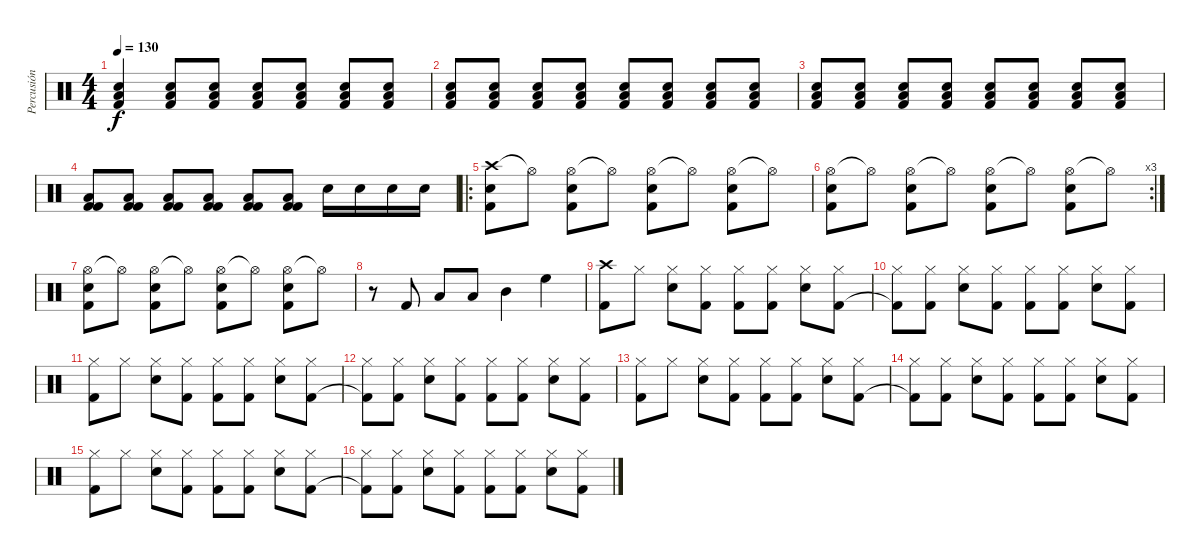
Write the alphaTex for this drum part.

\track ("Percusión" "Percusión") {instrument percussion}
\staff {score}
\articulation defaults
\ts (4 4)
\tempo 130
\clef neutral
\ks c
("Low Floor Tom (hit)" "Snare (hit) 2" "Kick (hit) 2").4{dy f} ("Low Floor Tom (hit)" "Snare (hit) 2" "Kick (hit) 2").8 ("Low Floor Tom (hit)" "Snare (hit) 2" "Kick (hit) 2").8 ("Low Floor Tom (hit)" "Snare (hit) 2" "Kick (hit) 2").8 ("Low Floor Tom (hit)" "Snare (hit) 2" "Kick (hit) 2").8 ("Low Floor Tom (hit)" "Snare (hit) 2" "Kick (hit) 2").8 ("Low Floor Tom (hit)" "Snare (hit) 2" "Kick (hit) 2").8 |
("Low Floor Tom (hit)" "Snare (hit) 2" "Kick (hit) 2").8 ("Low Floor Tom (hit)" "Snare (hit) 2" "Kick (hit) 2").8 ("Low Floor Tom (hit)" "Snare (hit) 2" "Kick (hit) 2").8 ("Low Floor Tom (hit)" "Snare (hit) 2" "Kick (hit) 2").8 ("Low Floor Tom (hit)" "Snare (hit) 2" "Kick (hit) 2").8 ("Low Floor Tom (hit)" "Snare (hit) 2" "Kick (hit) 2").8 ("Low Floor Tom (hit)" "Snare (hit) 2" "Kick (hit) 2").8 ("Low Floor Tom (hit)" "Snare (hit) 2" "Kick (hit) 2").8 |
("Low Floor Tom (hit)" "Snare (hit) 2" "Kick (hit) 2").8 ("Low Floor Tom (hit)" "Snare (hit) 2" "Kick (hit) 2").8 ("Low Floor Tom (hit)" "Snare (hit) 2" "Kick (hit) 2").8 ("Low Floor Tom (hit)" "Snare (hit) 2" "Kick (hit) 2").8 ("Low Floor Tom (hit)" "Snare (hit) 2" "Kick (hit) 2").8 ("Low Floor Tom (hit)" "Snare (hit) 2" "Kick (hit) 2").8 ("Low Floor Tom (hit)" "Snare (hit) 2" "Kick (hit) 2").8 ("Low Floor Tom (hit)" "Snare (hit) 2" "Kick (hit) 2").8 |
("Low Floor Tom (hit)" "Kick (hit) 2" "Kick (hit) 2").8 ("Low Floor Tom (hit)" "Kick (hit) 2" "Kick (hit) 2").8 ("Low Floor Tom (hit)" "Kick (hit) 2" "Kick (hit) 2").8 ("Low Floor Tom (hit)" "Kick (hit) 2" "Kick (hit) 2").8 ("Low Floor Tom (hit)" "Kick (hit) 2" "Kick (hit) 2").8 ("Low Floor Tom (hit)" "Kick (hit) 2" "Kick (hit) 2").8 "Snare (hit) 2".16 "Snare (hit) 2".16 "Snare (hit) 2".16 "Snare (hit) 2".16 |
\ro
("Crash high (hit)" "Snare (hit) 2" "Kick (hit) 2").8 "Hi-Hat (open)"{t}.8 ("Hi-Hat (open)" "Snare (hit) 2" "Kick (hit) 2").8 "Hi-Hat (open)"{t}.8 ("Hi-Hat (open)" "Snare (hit) 2" "Kick (hit) 2").8 "Hi-Hat (open)"{t}.8 ("Hi-Hat (open)" "Snare (hit) 2" "Kick (hit) 2").8 "Hi-Hat (open)"{t}.8 |
\rc 3
("Hi-Hat (open)" "Snare (hit) 2" "Kick (hit) 2").8 "Hi-Hat (open)"{t}.8 ("Hi-Hat (open)" "Snare (hit) 2" "Kick (hit) 2").8 "Hi-Hat (open)"{t}.8 ("Hi-Hat (open)" "Snare (hit) 2" "Kick (hit) 2").8 "Hi-Hat (open)"{t}.8 ("Hi-Hat (open)" "Snare (hit) 2" "Kick (hit) 2").8 "Hi-Hat (open)"{t}.8 |
("Hi-Hat (open)" "Snare (hit) 2" "Kick (hit) 2").8 "Hi-Hat (open)"{t}.8 ("Hi-Hat (open)" "Snare (hit) 2" "Kick (hit) 2").8 "Hi-Hat (open)"{t}.8 ("Hi-Hat (open)" "Snare (hit) 2" "Kick (hit) 2").8 "Hi-Hat (open)"{t}.8 ("Hi-Hat (open)" "Snare (hit) 2" "Kick (hit) 2").8 "Hi-Hat (open)"{t}.8 |
r.8 "Kick (hit) 2".8 "Low Floor Tom (hit)".8 "Low Tom (hit)".8 "Mid Tom (hit)".4 "High Floor Tom (hit)".4 |
("Crash high (hit)" "Kick (hit) 2").8 "Hi-Hat (closed)".8 ("Hi-Hat (closed)" "Snare (hit) 2").8 ("Hi-Hat (closed)" "Kick (hit) 2").8 ("Hi-Hat (closed)" "Kick (hit) 2").8 ("Hi-Hat (closed)" "Kick (hit) 2").8 ("Hi-Hat (closed)" "Snare (hit) 2").8 ("Hi-Hat (closed)" "Kick (hit) 2").8 |
("Hi-Hat (closed)" "Kick (hit) 2"{t}).8 ("Hi-Hat (closed)" "Kick (hit) 2").8 ("Hi-Hat (closed)" "Snare (hit) 2").8 ("Hi-Hat (closed)" "Kick (hit) 2").8 ("Hi-Hat (closed)" "Kick (hit) 2").8 ("Hi-Hat (closed)" "Kick (hit) 2").8 ("Hi-Hat (closed)" "Snare (hit) 2").8 ("Hi-Hat (closed)" "Kick (hit) 2").8 |
("Hi-Hat (closed)" "Kick (hit) 2").8 "Hi-Hat (closed)".8 ("Hi-Hat (closed)" "Snare (hit) 2").8 ("Hi-Hat (closed)" "Kick (hit) 2").8 ("Hi-Hat (closed)" "Kick (hit) 2").8 ("Hi-Hat (closed)" "Kick (hit) 2").8 ("Hi-Hat (closed)" "Snare (hit) 2").8 ("Hi-Hat (closed)" "Kick (hit) 2").8 |
("Hi-Hat (closed)" "Kick (hit) 2"{t}).8 ("Hi-Hat (closed)" "Kick (hit) 2").8 ("Hi-Hat (closed)" "Snare (hit) 2").8 ("Hi-Hat (closed)" "Kick (hit) 2").8 ("Hi-Hat (closed)" "Kick (hit) 2").8 ("Hi-Hat (closed)" "Kick (hit) 2").8 ("Hi-Hat (closed)" "Snare (hit) 2").8 ("Hi-Hat (closed)" "Kick (hit) 2").8 |
("Hi-Hat (closed)" "Kick (hit) 2").8 "Hi-Hat (closed)".8 ("Hi-Hat (closed)" "Snare (hit) 2").8 ("Hi-Hat (closed)" "Kick (hit) 2").8 ("Hi-Hat (closed)" "Kick (hit) 2").8 ("Hi-Hat (closed)" "Kick (hit) 2").8 ("Hi-Hat (closed)" "Snare (hit) 2").8 ("Hi-Hat (closed)" "Kick (hit) 2").8 |
("Hi-Hat (closed)" "Kick (hit) 2"{t}).8 ("Hi-Hat (closed)" "Kick (hit) 2").8 ("Hi-Hat (closed)" "Snare (hit) 2").8 ("Hi-Hat (closed)" "Kick (hit) 2").8 ("Hi-Hat (closed)" "Kick (hit) 2").8 ("Hi-Hat (closed)" "Kick (hit) 2").8 ("Hi-Hat (closed)" "Snare (hit) 2").8 ("Hi-Hat (closed)" "Kick (hit) 2").8 |
("Hi-Hat (closed)" "Kick (hit) 2").8 "Hi-Hat (closed)".8 ("Hi-Hat (closed)" "Snare (hit) 2").8 ("Hi-Hat (closed)" "Kick (hit) 2").8 ("Hi-Hat (closed)" "Kick (hit) 2").8 ("Hi-Hat (closed)" "Kick (hit) 2").8 ("Hi-Hat (closed)" "Snare (hit) 2").8 ("Hi-Hat (closed)" "Kick (hit) 2").8 |
("Hi-Hat (closed)" "Kick (hit) 2"{t}).8 ("Hi-Hat (closed)" "Kick (hit) 2").8 ("Hi-Hat (closed)" "Snare (hit) 2").8 ("Hi-Hat (closed)" "Kick (hit) 2").8 ("Hi-Hat (closed)" "Kick (hit) 2").8 ("Hi-Hat (closed)" "Kick (hit) 2").8 ("Hi-Hat (closed)" "Snare (hit) 2").8 ("Hi-Hat (closed)" "Kick (hit) 2").8
